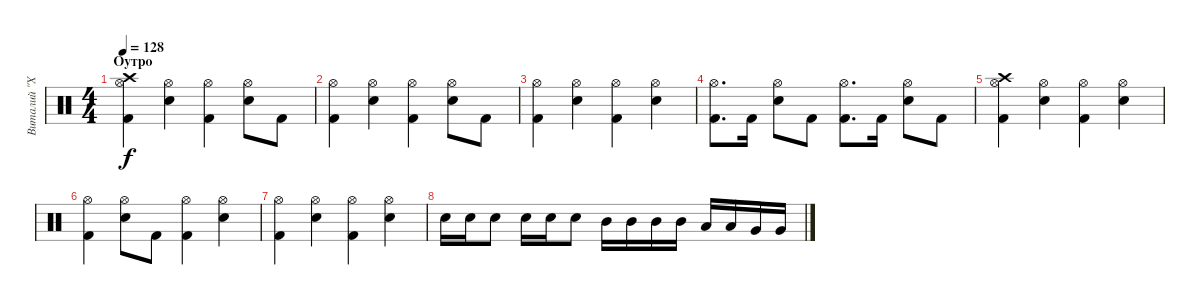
\track ("Виталий \"Хамер\" Лядов" "Виталий \"Х") {instrument percussion}
\staff {score}
\articulation defaults
\ts (4 4)
\section ("" "Оутро")
\tempo 128
\clef neutral
\ks c
("Kick (hit) 2" "Hi-Hat (open)" "Crash high (hit)").4{dy f} ("Electric Snare (hit)" "Hi-Hat (open)").4 ("Kick (hit) 2" "Hi-Hat (open)").4 ("Electric Snare (hit)" "Hi-Hat (open)").8 "Kick (hit) 2".8 |
("Kick (hit) 2" "Hi-Hat (open)").4 ("Electric Snare (hit)" "Hi-Hat (open)").4 ("Kick (hit) 2" "Hi-Hat (open)").4 ("Electric Snare (hit)" "Hi-Hat (open)").8 "Kick (hit) 2".8 |
("Kick (hit) 2" "Hi-Hat (open)").4 ("Electric Snare (hit)" "Hi-Hat (open)").4 ("Kick (hit) 2" "Hi-Hat (open)").4 ("Electric Snare (hit)" "Hi-Hat (open)").4 |
("Kick (hit) 2" "Hi-Hat (open)").8{d} "Kick (hit) 2".16 ("Electric Snare (hit)" "Hi-Hat (open)").8 "Kick (hit) 2".8 ("Kick (hit) 2" "Hi-Hat (open)").8{d} "Kick (hit) 2".16 ("Electric Snare (hit)" "Hi-Hat (open)").8 "Kick (hit) 2".8 |
("Kick (hit) 2" "Hi-Hat (open)" "Crash high (hit)").4 ("Electric Snare (hit)" "Hi-Hat (open)").4 ("Kick (hit) 2" "Hi-Hat (open)").4 ("Electric Snare (hit)" "Hi-Hat (open)").4 |
("Kick (hit) 2" "Hi-Hat (open)").4 ("Electric Snare (hit)" "Hi-Hat (open)").8 "Kick (hit) 2".8 ("Kick (hit) 2" "Hi-Hat (open)").4 ("Electric Snare (hit)" "Hi-Hat (open)").4 |
("Kick (hit) 2" "Hi-Hat (open)").4 ("Electric Snare (hit)" "Hi-Hat (open)").4 ("Kick (hit) 2" "Hi-Hat (open)").4 ("Electric Snare (hit)" "Hi-Hat (open)").4 |
"Electric Snare (hit)".16 "Electric Snare (hit)".16 "Electric Snare (hit)".8 "Electric Snare (hit)".16 "Electric Snare (hit)".16 "Electric Snare (hit)".8 "Mid Tom (hit)".16 "Mid Tom (hit)".16 "Mid Tom (hit)".16 "Mid Tom (hit)".16 "Low Tom (hit)".16 "Low Tom (hit)".16 "Very Low Tom (hit)".16 "Very Low Tom (hit)".16
